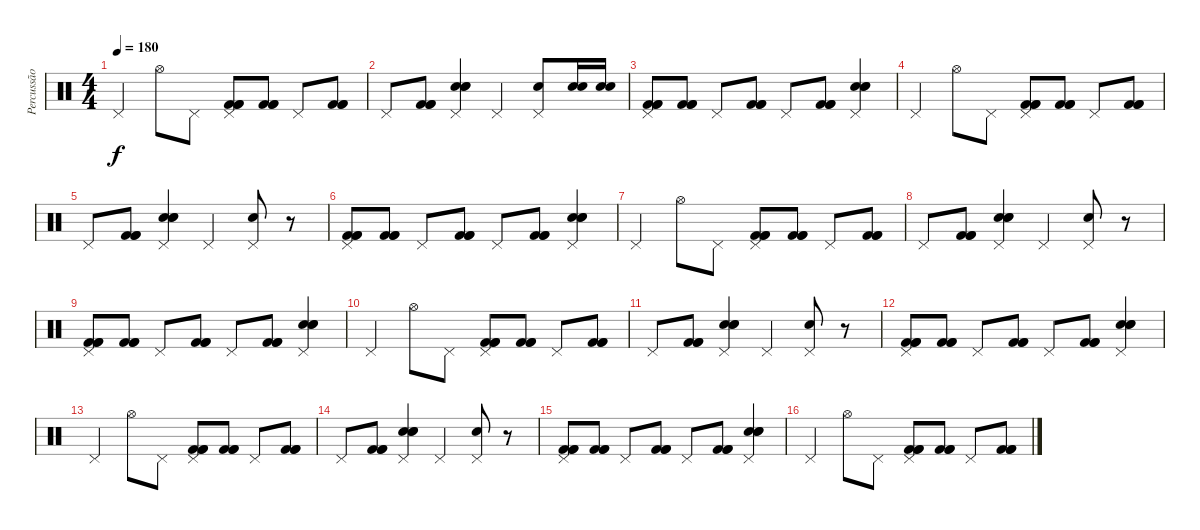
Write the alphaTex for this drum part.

\track ("Percussão" "Percussão") {instrument percussion}
\staff {score}
\articulation defaults
\ts (4 4)
\tempo 180
\clef neutral
\ks c "Pedal Hi-Hat (hit)".4{dy f} "Hi-Hat (open)".8 "Pedal Hi-Hat (hit)".8
("Pedal Hi-Hat (hit)" "Kick (hit) 2" "Kick (hit) 2" "Kick (hit) 2").8 ("Kick (hit) 2" "Kick (hit) 2" "Kick (hit) 2").8 "Pedal Hi-Hat (hit)".8 ("Kick (hit) 2" "Kick (hit) 2" "Kick (hit) 2").8 |
"Pedal Hi-Hat (hit)".8 ("Kick (hit) 2" "Kick (hit) 2" "Kick (hit) 2").8 ("Pedal Hi-Hat (hit)" "Electric Snare (hit)" "Electric Snare (hit)" "Electric Snare (hit)").4 "Pedal Hi-Hat (hit)".4 ("Pedal Hi-Hat (hit)" "Electric Snare (hit)").8 ("Electric Snare (hit)" "Electric Snare (hit)").16 ("Electric Snare (hit)" "Electric Snare (hit)").16 |
("Pedal Hi-Hat (hit)" "Kick (hit) 2" "Kick (hit) 2" "Kick (hit) 2").8 ("Kick (hit) 2" "Kick (hit) 2" "Kick (hit) 2").8 "Pedal Hi-Hat (hit)".8 ("Kick (hit) 2" "Kick (hit) 2" "Kick (hit) 2").8 "Pedal Hi-Hat (hit)".8 ("Kick (hit) 2" "Kick (hit) 2" "Kick (hit) 2").8 ("Pedal Hi-Hat (hit)" "Electric Snare (hit)" "Electric Snare (hit)" "Electric Snare (hit)").4 |
"Pedal Hi-Hat (hit)".4 "Hi-Hat (open)".8 "Pedal Hi-Hat (hit)".8 ("Pedal Hi-Hat (hit)" "Kick (hit) 2" "Kick (hit) 2" "Kick (hit) 2").8 ("Kick (hit) 2" "Kick (hit) 2" "Kick (hit) 2").8 "Pedal Hi-Hat (hit)".8 ("Kick (hit) 2" "Kick (hit) 2" "Kick (hit) 2").8 |
"Pedal Hi-Hat (hit)".8 ("Kick (hit) 2" "Kick (hit) 2" "Kick (hit) 2").8 ("Pedal Hi-Hat (hit)" "Electric Snare (hit)" "Electric Snare (hit)" "Electric Snare (hit)").4 "Pedal Hi-Hat (hit)".4 ("Pedal Hi-Hat (hit)" "Electric Snare (hit)").8 r.8 |
("Pedal Hi-Hat (hit)" "Kick (hit) 2" "Kick (hit) 2" "Kick (hit) 2").8 ("Kick (hit) 2" "Kick (hit) 2" "Kick (hit) 2").8 "Pedal Hi-Hat (hit)".8 ("Kick (hit) 2" "Kick (hit) 2" "Kick (hit) 2").8 "Pedal Hi-Hat (hit)".8 ("Kick (hit) 2" "Kick (hit) 2" "Kick (hit) 2").8 ("Pedal Hi-Hat (hit)" "Electric Snare (hit)" "Electric Snare (hit)" "Electric Snare (hit)").4 |
"Pedal Hi-Hat (hit)".4 "Hi-Hat (open)".8 "Pedal Hi-Hat (hit)".8 ("Pedal Hi-Hat (hit)" "Kick (hit) 2" "Kick (hit) 2" "Kick (hit) 2").8 ("Kick (hit) 2" "Kick (hit) 2" "Kick (hit) 2").8 "Pedal Hi-Hat (hit)".8 ("Kick (hit) 2" "Kick (hit) 2" "Kick (hit) 2").8 |
"Pedal Hi-Hat (hit)".8 ("Kick (hit) 2" "Kick (hit) 2" "Kick (hit) 2").8 ("Pedal Hi-Hat (hit)" "Electric Snare (hit)" "Electric Snare (hit)" "Electric Snare (hit)").4 "Pedal Hi-Hat (hit)".4 ("Pedal Hi-Hat (hit)" "Electric Snare (hit)").8 r.8 |
("Pedal Hi-Hat (hit)" "Kick (hit) 2" "Kick (hit) 2" "Kick (hit) 2").8 ("Kick (hit) 2" "Kick (hit) 2" "Kick (hit) 2").8 "Pedal Hi-Hat (hit)".8 ("Kick (hit) 2" "Kick (hit) 2" "Kick (hit) 2").8 "Pedal Hi-Hat (hit)".8 ("Kick (hit) 2" "Kick (hit) 2" "Kick (hit) 2").8 ("Pedal Hi-Hat (hit)" "Electric Snare (hit)" "Electric Snare (hit)" "Electric Snare (hit)").4 |
"Pedal Hi-Hat (hit)".4 "Hi-Hat (open)".8 "Pedal Hi-Hat (hit)".8 ("Pedal Hi-Hat (hit)" "Kick (hit) 2" "Kick (hit) 2" "Kick (hit) 2").8 ("Kick (hit) 2" "Kick (hit) 2" "Kick (hit) 2").8 "Pedal Hi-Hat (hit)".8 ("Kick (hit) 2" "Kick (hit) 2" "Kick (hit) 2").8 |
"Pedal Hi-Hat (hit)".8 ("Kick (hit) 2" "Kick (hit) 2" "Kick (hit) 2").8 ("Pedal Hi-Hat (hit)" "Electric Snare (hit)" "Electric Snare (hit)" "Electric Snare (hit)").4 "Pedal Hi-Hat (hit)".4 ("Pedal Hi-Hat (hit)" "Electric Snare (hit)").8 r.8 |
("Pedal Hi-Hat (hit)" "Kick (hit) 2" "Kick (hit) 2" "Kick (hit) 2").8 ("Kick (hit) 2" "Kick (hit) 2" "Kick (hit) 2").8 "Pedal Hi-Hat (hit)".8 ("Kick (hit) 2" "Kick (hit) 2" "Kick (hit) 2").8 "Pedal Hi-Hat (hit)".8 ("Kick (hit) 2" "Kick (hit) 2" "Kick (hit) 2").8 ("Pedal Hi-Hat (hit)" "Electric Snare (hit)" "Electric Snare (hit)" "Electric Snare (hit)").4 |
"Pedal Hi-Hat (hit)".4 "Hi-Hat (open)".8 "Pedal Hi-Hat (hit)".8 ("Pedal Hi-Hat (hit)" "Kick (hit) 2" "Kick (hit) 2" "Kick (hit) 2").8 ("Kick (hit) 2" "Kick (hit) 2" "Kick (hit) 2").8 "Pedal Hi-Hat (hit)".8 ("Kick (hit) 2" "Kick (hit) 2" "Kick (hit) 2").8 |
"Pedal Hi-Hat (hit)".8 ("Kick (hit) 2" "Kick (hit) 2" "Kick (hit) 2").8 ("Pedal Hi-Hat (hit)" "Electric Snare (hit)" "Electric Snare (hit)" "Electric Snare (hit)").4 "Pedal Hi-Hat (hit)".4 ("Pedal Hi-Hat (hit)" "Electric Snare (hit)").8 r.8 |
("Pedal Hi-Hat (hit)" "Kick (hit) 2" "Kick (hit) 2" "Kick (hit) 2").8 ("Kick (hit) 2" "Kick (hit) 2" "Kick (hit) 2").8 "Pedal Hi-Hat (hit)".8 ("Kick (hit) 2" "Kick (hit) 2" "Kick (hit) 2").8 "Pedal Hi-Hat (hit)".8 ("Kick (hit) 2" "Kick (hit) 2" "Kick (hit) 2").8 ("Pedal Hi-Hat (hit)" "Electric Snare (hit)" "Electric Snare (hit)" "Electric Snare (hit)").4 |
"Pedal Hi-Hat (hit)".4 "Hi-Hat (open)".8 "Pedal Hi-Hat (hit)".8 ("Pedal Hi-Hat (hit)" "Kick (hit) 2" "Kick (hit) 2" "Kick (hit) 2").8 ("Kick (hit) 2" "Kick (hit) 2" "Kick (hit) 2").8 "Pedal Hi-Hat (hit)".8 ("Kick (hit) 2" "Kick (hit) 2" "Kick (hit) 2").8
